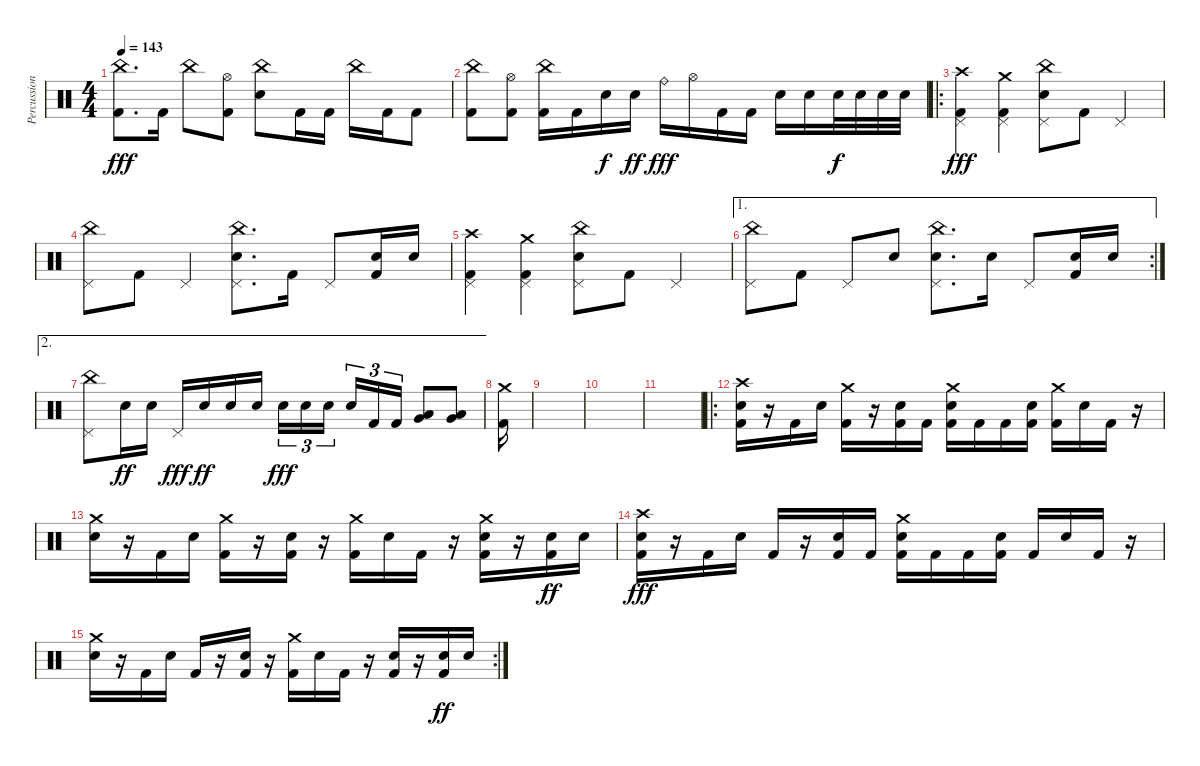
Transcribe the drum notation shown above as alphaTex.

\track ("Percussion" "Percussion") {instrument percussion}
\staff {score}
\articulation defaults
\ts (4 4)
\tempo 143
\clef neutral
\ks c
("Kick (hit) 2" "China (hit)").8{d dy fff} "Kick (hit) 2".16 "China (hit)".8 ("Kick (hit) 2" "Hi-Hat (open)").8 ("Electric Snare (hit)" "China (hit)").8 "Kick (hit) 2".16 "Kick (hit) 2".16 "China (hit)".16 "Kick (hit) 2".16 "Kick (hit) 2".8 |
("Kick (hit) 2" "China (hit)").8 ("Kick (hit) 2" "Hi-Hat (open)").8 ("Kick (hit) 2" "China (hit)").16 "Kick (hit) 2".16 "Electric Snare (hit)".16{dy f} "Electric Snare (hit)".16{dy ff} "Ride (bell)".16{dy fff} "Hi-Hat (open)".16 "Kick (hit) 2".16 "Kick (hit) 2".16 "Electric Snare (hit)".16 "Electric Snare (hit)".16 "Electric Snare (hit)".32{dy f} "Electric Snare (hit)".32 "Electric Snare (hit)".32 "Electric Snare (hit)".32 |
\ro
("Kick (hit) 2" "Pedal Hi-Hat (hit)" "Crash high (hit)").4{dy fff} ("Pedal Hi-Hat (hit)" "Kick (hit) 2" "Crash medium (hit)").4 ("Pedal Hi-Hat (hit)" "China (hit)" "Electric Snare (hit)").8 "Kick (hit) 2".8 "Pedal Hi-Hat (hit)".4 |
("Pedal Hi-Hat (hit)" "China (hit)").8 "Kick (hit) 2".8 "Pedal Hi-Hat (hit)".4 ("Pedal Hi-Hat (hit)" "China (hit)" "Electric Snare (hit)").8{d} "Kick (hit) 2".16 "Pedal Hi-Hat (hit)".8 ("Kick (hit) 2" "Electric Snare (hit)").16 "Electric Snare (hit)".16 |
("Kick (hit) 2" "Pedal Hi-Hat (hit)" "Crash high (hit)").4 ("Pedal Hi-Hat (hit)" "Kick (hit) 2" "Crash medium (hit)").4 ("Pedal Hi-Hat (hit)" "China (hit)" "Electric Snare (hit)").8 "Kick (hit) 2".8 "Pedal Hi-Hat (hit)".4 |
\ae 1
\rc 2
("Pedal Hi-Hat (hit)" "China (hit)").8 "Kick (hit) 2".8 "Pedal Hi-Hat (hit)".8 "Electric Snare (hit)".8 ("Pedal Hi-Hat (hit)" "China (hit)" "Electric Snare (hit)").8{d} "Electric Snare (hit)".16 "Pedal Hi-Hat (hit)".8 ("Kick (hit) 2" "Electric Snare (hit)").16 "Electric Snare (hit)".16 |
\ae 2
("Pedal Hi-Hat (hit)" "China (hit)").8 "Electric Snare (hit)".16{dy ff} "Electric Snare (hit)".16 "Pedal Hi-Hat (hit)".16{dy fff} "Electric Snare (hit)".16{dy ff} "Electric Snare (hit)".16 "Electric Snare (hit)".16 "Electric Snare (hit)".16{tu (3 2) dy fff} "Electric Snare (hit)".16{tu (3 2)} "Electric Snare (hit)".16{tu (3 2) beam splitsecondary} "Electric Snare (hit)".16{tu (3 2)} "Kick (hit) 2".16{tu (3 2)} "Kick (hit) 2".16{tu (3 2)} ("Very Low Tom (hit)" "Low Floor Tom (hit)").8 ("Very Low Tom (hit)" "Low Floor Tom (hit)").8 |
("Crash medium (hit)" "Kick (hit) 2").16 |
|
|
|
\ro
("Kick (hit) 2" "Electric Snare (hit)" "Crash high (hit)").16 r.16 "Kick (hit) 2".16 "Electric Snare (hit)".16 ("Kick (hit) 2" "Crash medium (hit)").16 r.16 ("Electric Snare (hit)" "Kick (hit) 2").16 "Kick (hit) 2".16 ("Kick (hit) 2" "Electric Snare (hit)" "Crash medium (hit)").16 "Kick (hit) 2".16 "Kick (hit) 2".16 ("Electric Snare (hit)" "Kick (hit) 2").16 ("Kick (hit) 2" "Crash medium (hit)").16 "Electric Snare (hit)".16 "Kick (hit) 2".16 r.16 |
("Crash medium (hit)" "Electric Snare (hit)").16 r.16 "Kick (hit) 2".16 "Electric Snare (hit)".16 ("Kick (hit) 2" "Crash medium (hit)").16 r.16 ("Kick (hit) 2" "Electric Snare (hit)").16 r.16 ("Kick (hit) 2" "Crash medium (hit)").16 "Electric Snare (hit)".16 "Kick (hit) 2".16 r.16 ("Kick (hit) 2" "Electric Snare (hit)" "Crash medium (hit)").16 r.16 ("Kick (hit) 2" "Electric Snare (hit)").16{dy ff} "Electric Snare (hit)".16 |
("Kick (hit) 2" "Electric Snare (hit)" "Crash high (hit)").16{dy fff} r.16 "Kick (hit) 2".16 "Electric Snare (hit)".16 "Kick (hit) 2".16 r.16 ("Electric Snare (hit)" "Kick (hit) 2").16 "Kick (hit) 2".16 ("Kick (hit) 2" "Electric Snare (hit)" "Crash medium (hit)").16 "Kick (hit) 2".16 "Kick (hit) 2".16 ("Electric Snare (hit)" "Kick (hit) 2").16 "Kick (hit) 2".16 "Electric Snare (hit)".16 "Kick (hit) 2".16 r.16 |
\rc 2
("Crash medium (hit)" "Electric Snare (hit)").16 r.16 "Kick (hit) 2".16 "Electric Snare (hit)".16 "Kick (hit) 2".16 r.16 ("Kick (hit) 2" "Electric Snare (hit)").16 r.16 ("Kick (hit) 2" "Crash medium (hit)").16 "Electric Snare (hit)".16 "Kick (hit) 2".16 r.16 ("Kick (hit) 2" "Electric Snare (hit)").16 r.16 ("Kick (hit) 2" "Electric Snare (hit)").16{dy ff} "Electric Snare (hit)".16
